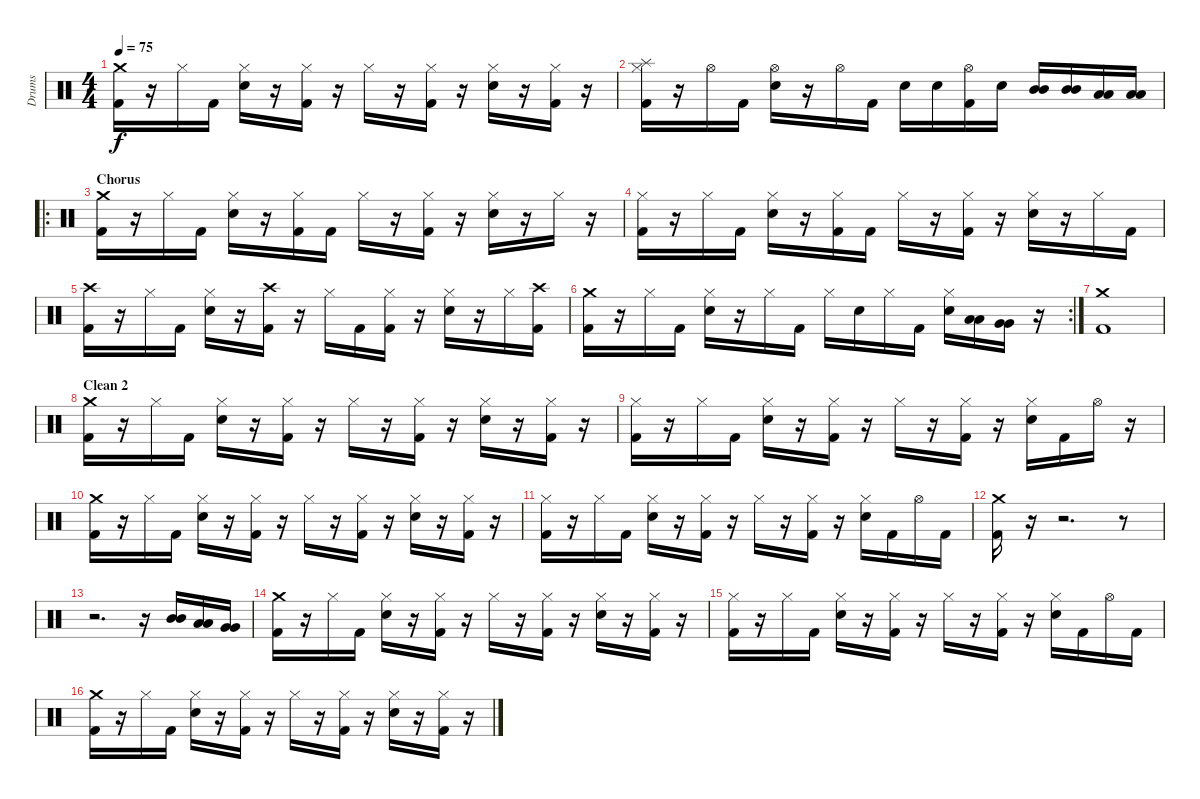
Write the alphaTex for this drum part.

\track ("Drums" "Drums") {instrument percussion}
\staff {score}
\articulation defaults
\ts (4 4)
\tempo 75
\clef neutral
\ks c
("Crash medium (hit)" "Kick (hit) 2").16{dy f} r.16 "Hi-Hat (closed)".16 "Kick (hit) 2".16 ("Hi-Hat (closed)" "Electric Snare (hit)").16 r.16 ("Hi-Hat (closed)" "Kick (hit) 2").16 r.16 "Hi-Hat (closed)".16 r.16 ("Hi-Hat (closed)" "Kick (hit) 2").16 r.16 ("Hi-Hat (closed)" "Electric Snare (hit)").16 r.16 ("Hi-Hat (closed)" "Kick (hit) 2").16 r.16 |
("Hi-Hat (closed)" "Splash (hit)" "Kick (hit) 2").16 r.16 "Hi-Hat (open)".16 "Kick (hit) 2".16 ("Hi-Hat (open)" "Electric Snare (hit)").16 r.16 "Hi-Hat (open)".16 "Kick (hit) 2".16 "Electric Snare (hit)".16 "Electric Snare (hit)".16 ("Hi-Hat (open)" "Kick (hit) 2").16 "Electric Snare (hit)".16 ("Mid Tom (hit)" "Mid Tom (hit)").16 ("Mid Tom (hit)" "Mid Tom (hit)").16 ("Low Tom (hit)" "Low Tom (hit)").16 ("Low Tom (hit)" "Low Tom (hit)").16 |
\ro
\section ("" "Chorus")
("Crash medium (hit)" "Kick (hit) 2").16 r.16 "Hi-Hat (closed)".16 "Kick (hit) 2".16 ("Hi-Hat (closed)" "Electric Snare (hit)").16 r.16 ("Hi-Hat (closed)" "Kick (hit) 2").16 "Kick (hit) 2".16 "Hi-Hat (closed)".16 r.16 ("Hi-Hat (closed)" "Kick (hit) 2").16 r.16 ("Hi-Hat (closed)" "Electric Snare (hit)").16 r.16 "Hi-Hat (closed)".16 r.16 |
("Hi-Hat (closed)" "Kick (hit) 2").16 r.16 "Hi-Hat (closed)".16 "Kick (hit) 2".16 ("Hi-Hat (closed)" "Electric Snare (hit)").16 r.16 ("Hi-Hat (closed)" "Kick (hit) 2").16 "Kick (hit) 2".16 "Hi-Hat (closed)".16 r.16 ("Hi-Hat (closed)" "Kick (hit) 2").16 r.16 ("Hi-Hat (closed)" "Electric Snare (hit)").16 r.16 "Hi-Hat (closed)".16 "Kick (hit) 2".16 |
("Crash high (hit)" "Kick (hit) 2").16 r.16 "Hi-Hat (closed)".16 "Kick (hit) 2".16 ("Hi-Hat (closed)" "Electric Snare (hit)").16 r.16 ("Crash high (hit)" "Kick (hit) 2").16 r.16 "Hi-Hat (closed)".16 "Kick (hit) 2".16 ("Hi-Hat (closed)" "Kick (hit) 2").16 r.16 ("Hi-Hat (closed)" "Electric Snare (hit)").16 r.16 "Hi-Hat (closed)".16 ("Crash high (hit)" "Kick (hit) 2").16 |
\rc 2
("Crash medium (hit)" "Kick (hit) 2").16 r.16 "Hi-Hat (closed)".16 "Kick (hit) 2".16 ("Hi-Hat (closed)" "Electric Snare (hit)").16 r.16 "Hi-Hat (closed)".16 "Kick (hit) 2".16 "Hi-Hat (closed)".16 "Electric Snare (hit)".16 "Hi-Hat (closed)".16 "Kick (hit) 2".16 ("Hi-Hat (closed)" "Electric Snare (hit)").16 ("Low Tom (hit)" "Low Tom (hit)").16 ("Very Low Tom (hit)" "Very Low Tom (hit)").16 r.16 |
("Crash medium (hit)" "Kick (hit) 2").1 |
\section ("" "Clean 2")
("Crash medium (hit)" "Kick (hit) 2").16 r.16 "Hi-Hat (closed)".16 "Kick (hit) 2".16 ("Hi-Hat (closed)" "Electric Snare (hit)").16 r.16 ("Hi-Hat (closed)" "Kick (hit) 2").16 r.16 "Hi-Hat (closed)".16 r.16 ("Hi-Hat (closed)" "Kick (hit) 2").16 r.16 ("Hi-Hat (closed)" "Electric Snare (hit)").16 r.16 ("Hi-Hat (closed)" "Kick (hit) 2").16 r.16 |
("Hi-Hat (closed)" "Kick (hit) 2").16 r.16 "Hi-Hat (closed)".16 "Kick (hit) 2".16 ("Hi-Hat (closed)" "Electric Snare (hit)").16 r.16 ("Hi-Hat (closed)" "Kick (hit) 2").16 r.16 "Hi-Hat (closed)".16 r.16 ("Hi-Hat (closed)" "Kick (hit) 2").16 r.16 ("Hi-Hat (closed)" "Electric Snare (hit)").16 "Kick (hit) 2".16 "Hi-Hat (open)".16 r.16 |
("Crash medium (hit)" "Kick (hit) 2").16 r.16 "Hi-Hat (closed)".16 "Kick (hit) 2".16 ("Hi-Hat (closed)" "Electric Snare (hit)").16 r.16 ("Hi-Hat (closed)" "Kick (hit) 2").16 r.16 "Hi-Hat (closed)".16 r.16 ("Hi-Hat (closed)" "Kick (hit) 2").16 r.16 ("Hi-Hat (closed)" "Electric Snare (hit)").16 r.16 ("Hi-Hat (closed)" "Kick (hit) 2").16 r.16 |
("Hi-Hat (closed)" "Kick (hit) 2").16 r.16 "Hi-Hat (closed)".16 "Kick (hit) 2".16 ("Hi-Hat (closed)" "Electric Snare (hit)").16 r.16 ("Hi-Hat (closed)" "Kick (hit) 2").16 r.16 "Hi-Hat (closed)".16 r.16 ("Hi-Hat (closed)" "Kick (hit) 2").16 r.16 ("Hi-Hat (closed)" "Electric Snare (hit)").16 "Kick (hit) 2".16 "Hi-Hat (open)".16 "Kick (hit) 2".16 |
("Crash medium (hit)" "Kick (hit) 2").16 r.16 r.2{d} r.8 |
r.2{d} r.16 ("Mid Tom (hit)" "Mid Tom (hit)").16 ("Low Tom (hit)" "Low Tom (hit)").16 ("Very Low Tom (hit)" "Very Low Tom (hit)").16 |
("Crash medium (hit)" "Kick (hit) 2").16 r.16 "Hi-Hat (closed)".16 "Kick (hit) 2".16 ("Hi-Hat (closed)" "Electric Snare (hit)").16 r.16 ("Hi-Hat (closed)" "Kick (hit) 2").16 r.16 "Hi-Hat (closed)".16 r.16 ("Hi-Hat (closed)" "Kick (hit) 2").16 r.16 ("Hi-Hat (closed)" "Electric Snare (hit)").16 r.16 ("Hi-Hat (closed)" "Kick (hit) 2").16 r.16 |
("Hi-Hat (closed)" "Kick (hit) 2").16 r.16 "Hi-Hat (closed)".16 "Kick (hit) 2".16 ("Hi-Hat (closed)" "Electric Snare (hit)").16 r.16 ("Hi-Hat (closed)" "Kick (hit) 2").16 r.16 "Hi-Hat (closed)".16 r.16 ("Hi-Hat (closed)" "Kick (hit) 2").16 r.16 ("Hi-Hat (closed)" "Electric Snare (hit)").16 "Kick (hit) 2".16 "Hi-Hat (open)".16 "Kick (hit) 2".16 |
("Crash medium (hit)" "Kick (hit) 2").16 r.16 "Hi-Hat (closed)".16 "Kick (hit) 2".16 ("Hi-Hat (closed)" "Electric Snare (hit)").16 r.16 ("Hi-Hat (closed)" "Kick (hit) 2").16 r.16 "Hi-Hat (closed)".16 r.16 ("Hi-Hat (closed)" "Kick (hit) 2").16 r.16 ("Hi-Hat (closed)" "Electric Snare (hit)").16 r.16 ("Hi-Hat (closed)" "Kick (hit) 2").16 r.16
